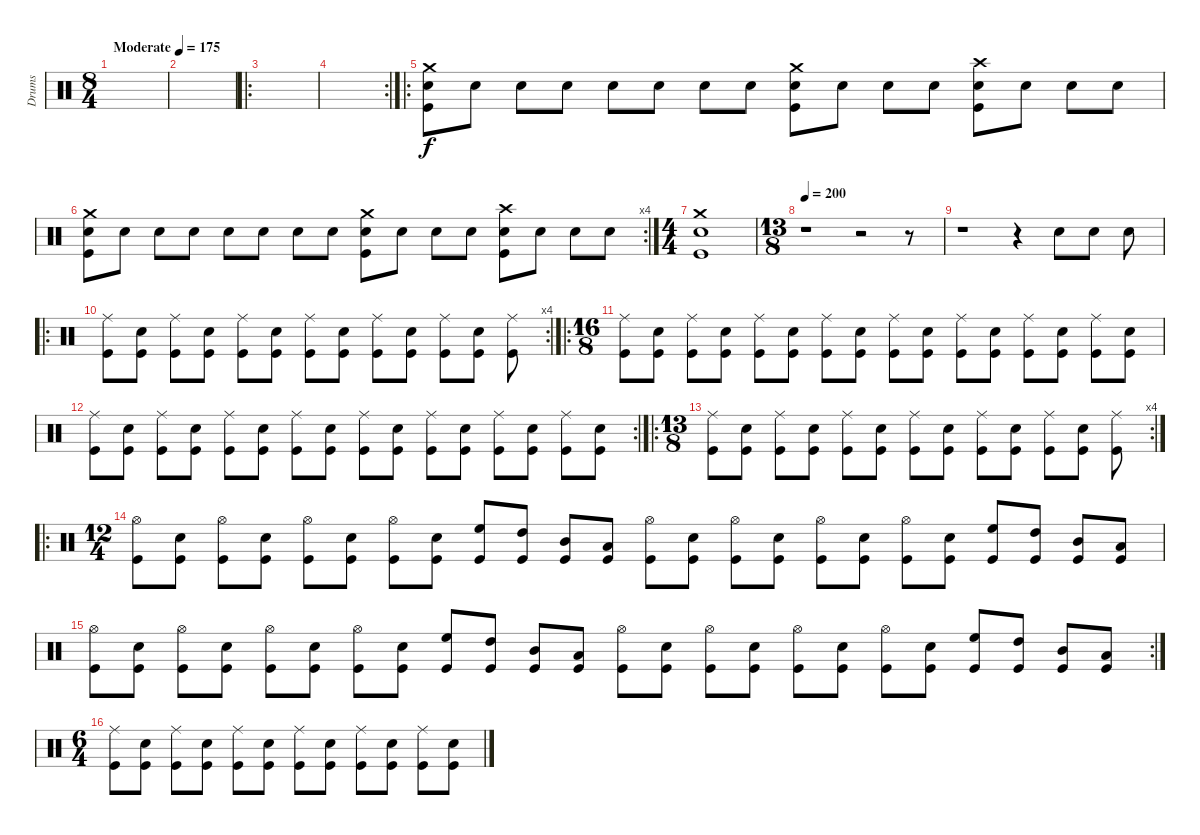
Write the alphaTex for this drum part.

\track ("Drums" "Drums") {instrument percussion}
\staff {score}
\articulation defaults
\ts (8 4)
\tempo (175 "Moderate")
\clef neutral
\ks c
|
|
\ro
|
\rc 2
|
\ro
("Crash medium (hit)" "Kick (hit)" "Snare (hit) 2").8 "Snare (hit) 2".8 "Snare (hit) 2".8 "Snare (hit) 2".8 "Snare (hit) 2".8 "Snare (hit) 2".8 "Snare (hit) 2".8 "Snare (hit) 2".8 ("Crash medium (hit)" "Kick (hit)" "Snare (hit) 2").8 "Snare (hit) 2".8 "Snare (hit) 2".8 "Snare (hit) 2".8 ("Crash high (hit)" "Kick (hit)" "Snare (hit) 2").8 "Snare (hit) 2".8 "Snare (hit) 2".8 "Snare (hit) 2".8 |
\rc 4
("Crash medium (hit)" "Kick (hit)" "Snare (hit) 2").8 "Snare (hit) 2".8 "Snare (hit) 2".8 "Snare (hit) 2".8 "Snare (hit) 2".8 "Snare (hit) 2".8 "Snare (hit) 2".8 "Snare (hit) 2".8 ("Crash medium (hit)" "Kick (hit)" "Snare (hit) 2").8 "Snare (hit) 2".8 "Snare (hit) 2".8 "Snare (hit) 2".8 ("Crash high (hit)" "Kick (hit)" "Snare (hit) 2").8 "Snare (hit) 2".8 "Snare (hit) 2".8 "Snare (hit) 2".8 |
\ts (4 4)
("Crash medium (hit)" "Snare (hit) 2" "Kick (hit)").1 |
\ts (13 8)
\tempo 200
r.1 r.2 r.8 |
r.1 r.4 "Snare (hit) 2".8 "Snare (hit) 2".8 "Snare (hit) 2".8 |
\ro
\rc 4
("Ride (middle)" "Kick (hit)").8 ("Snare (hit) 2" "Kick (hit)").8 ("Ride (middle)" "Kick (hit)").8 ("Snare (hit) 2" "Kick (hit)").8 ("Ride (middle)" "Kick (hit)").8 ("Snare (hit) 2" "Kick (hit)").8 ("Ride (middle)" "Kick (hit)").8 ("Snare (hit) 2" "Kick (hit)").8 ("Ride (middle)" "Kick (hit)").8 ("Snare (hit) 2" "Kick (hit)").8 ("Ride (middle)" "Kick (hit)").8 ("Snare (hit) 2" "Kick (hit)").8 ("Ride (middle)" "Kick (hit)").8 |
\ro
\ts (16 8)
("Ride (middle)" "Kick (hit)").8 ("Snare (hit) 2" "Kick (hit)").8 ("Ride (middle)" "Kick (hit)").8 ("Snare (hit) 2" "Kick (hit)").8 ("Ride (middle)" "Kick (hit)").8 ("Snare (hit) 2" "Kick (hit)").8 ("Ride (middle)" "Kick (hit)").8 ("Snare (hit) 2" "Kick (hit)").8 ("Ride (middle)" "Kick (hit)").8 ("Snare (hit) 2" "Kick (hit)").8 ("Ride (middle)" "Kick (hit)").8 ("Snare (hit) 2" "Kick (hit)").8 ("Ride (middle)" "Kick (hit)").8 ("Snare (hit) 2" "Kick (hit)").8 ("Ride (middle)" "Kick (hit)").8 ("Snare (hit) 2" "Kick (hit)").8 |
\rc 2
("Ride (middle)" "Kick (hit)").8 ("Snare (hit) 2" "Kick (hit)").8 ("Ride (middle)" "Kick (hit)").8 ("Snare (hit) 2" "Kick (hit)").8 ("Ride (middle)" "Kick (hit)").8 ("Snare (hit) 2" "Kick (hit)").8 ("Ride (middle)" "Kick (hit)").8 ("Snare (hit) 2" "Kick (hit)").8 ("Ride (middle)" "Kick (hit)").8 ("Snare (hit) 2" "Kick (hit)").8 ("Ride (middle)" "Kick (hit)").8 ("Snare (hit) 2" "Kick (hit)").8 ("Ride (middle)" "Kick (hit)").8 ("Snare (hit) 2" "Kick (hit)").8 ("Ride (middle)" "Kick (hit)").8 ("Snare (hit) 2" "Kick (hit)").8 |
\ro
\rc 4
\ts (13 8)
("Ride (middle)" "Kick (hit)").8 ("Snare (hit) 2" "Kick (hit)").8 ("Ride (middle)" "Kick (hit)").8 ("Snare (hit) 2" "Kick (hit)").8 ("Ride (middle)" "Kick (hit)").8 ("Snare (hit) 2" "Kick (hit)").8 ("Ride (middle)" "Kick (hit)").8 ("Snare (hit) 2" "Kick (hit)").8 ("Ride (middle)" "Kick (hit)").8 ("Snare (hit) 2" "Kick (hit)").8 ("Ride (middle)" "Kick (hit)").8 ("Snare (hit) 2" "Kick (hit)").8 ("Ride (middle)" "Kick (hit)").8 |
\ro
\ts (12 4)
("Hi-Hat (open)" "Kick (hit)").8 ("Snare (hit) 2" "Kick (hit)").8 ("Hi-Hat (open)" "Kick (hit)").8 ("Snare (hit) 2" "Kick (hit)").8 ("Hi-Hat (open)" "Kick (hit)").8 ("Snare (hit) 2" "Kick (hit)").8 ("Hi-Hat (open)" "Kick (hit)").8 ("Snare (hit) 2" "Kick (hit)").8 ("High Floor Tom (hit)" "Kick (hit)").8 ("High Tom (hit)" "Kick (hit)").8 ("Mid Tom (hit)" "Kick (hit)").8 ("Low Tom (hit)" "Kick (hit)").8 ("Hi-Hat (open)" "Kick (hit)").8 ("Snare (hit) 2" "Kick (hit)").8 ("Hi-Hat (open)" "Kick (hit)").8 ("Snare (hit) 2" "Kick (hit)").8 ("Hi-Hat (open)" "Kick (hit)").8 ("Snare (hit) 2" "Kick (hit)").8 ("Hi-Hat (open)" "Kick (hit)").8 ("Snare (hit) 2" "Kick (hit)").8 ("High Floor Tom (hit)" "Kick (hit)").8 ("High Tom (hit)" "Kick (hit)").8 ("Mid Tom (hit)" "Kick (hit)").8 ("Low Tom (hit)" "Kick (hit)").8 |
\rc 2
("Hi-Hat (open)" "Kick (hit)").8 ("Snare (hit) 2" "Kick (hit)").8 ("Hi-Hat (open)" "Kick (hit)").8 ("Snare (hit) 2" "Kick (hit)").8 ("Hi-Hat (open)" "Kick (hit)").8 ("Snare (hit) 2" "Kick (hit)").8 ("Hi-Hat (open)" "Kick (hit)").8 ("Snare (hit) 2" "Kick (hit)").8 ("High Floor Tom (hit)" "Kick (hit)").8 ("High Tom (hit)" "Kick (hit)").8 ("Mid Tom (hit)" "Kick (hit)").8 ("Low Tom (hit)" "Kick (hit)").8 ("Hi-Hat (open)" "Kick (hit)").8 ("Snare (hit) 2" "Kick (hit)").8 ("Hi-Hat (open)" "Kick (hit)").8 ("Snare (hit) 2" "Kick (hit)").8 ("Hi-Hat (open)" "Kick (hit)").8 ("Snare (hit) 2" "Kick (hit)").8 ("Hi-Hat (open)" "Kick (hit)").8 ("Snare (hit) 2" "Kick (hit)").8 ("High Floor Tom (hit)" "Kick (hit)").8 ("High Tom (hit)" "Kick (hit)").8 ("Mid Tom (hit)" "Kick (hit)").8 ("Low Tom (hit)" "Kick (hit)").8 |
\ts (6 4)
("Ride (middle)" "Kick (hit)").8 ("Snare (hit) 2" "Kick (hit)").8 ("Ride (middle)" "Kick (hit)").8 ("Snare (hit) 2" "Kick (hit)").8 ("Ride (middle)" "Kick (hit)").8 ("Snare (hit) 2" "Kick (hit)").8 ("Ride (middle)" "Kick (hit)").8 ("Snare (hit) 2" "Kick (hit)").8 ("Ride (middle)" "Kick (hit)").8 ("Snare (hit) 2" "Kick (hit)").8 ("Ride (middle)" "Kick (hit)").8 ("Snare (hit) 2" "Kick (hit)").8
